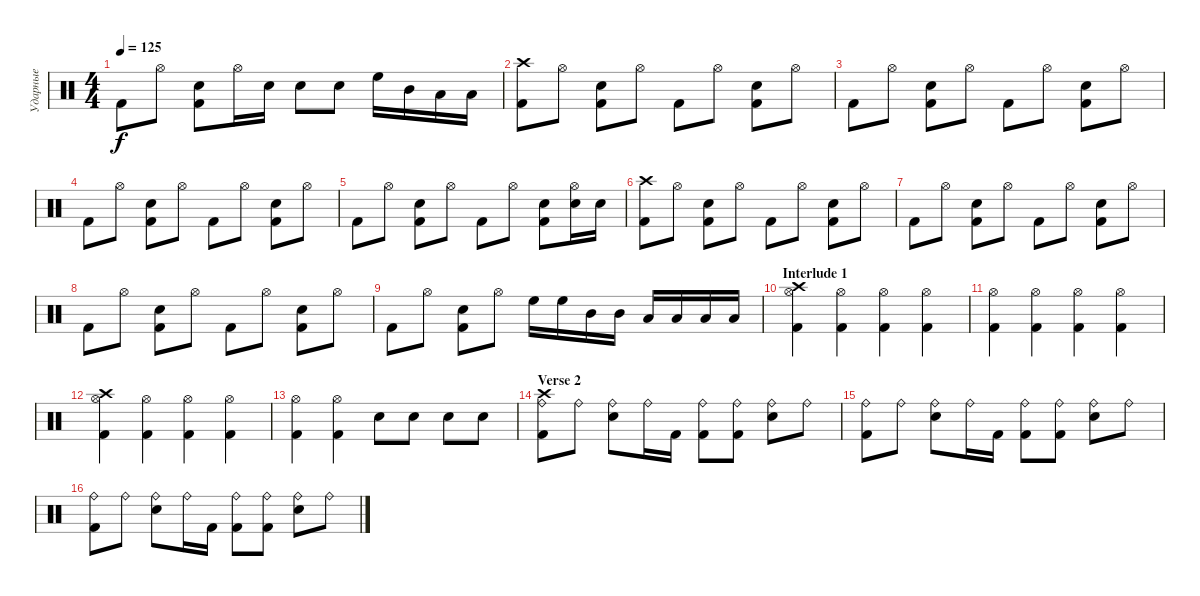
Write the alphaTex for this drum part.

\track ("Ударные" "Ударные") {instrument percussion}
\staff {score}
\articulation defaults
\ts (4 4)
\tempo 125
\clef neutral
\ks c "Kick (hit) 2".8{dy f} "Hi-Hat (open)".8
("Snare (hit) 2" "Kick (hit) 2").8 "Hi-Hat (open)".16 "Snare (hit) 2".16 "Snare (hit) 2".8 "Snare (hit) 2".8 "High Floor Tom (hit)".16 "Mid Tom (hit)".16 "Low Tom (hit)".16 "Low Floor Tom (hit)".16 |
("Crash high (hit)" "Kick (hit) 2").8 "Hi-Hat (open)".8 ("Snare (hit) 2" "Kick (hit) 2").8 "Hi-Hat (open)".8 "Kick (hit) 2".8 "Hi-Hat (open)".8 ("Snare (hit) 2" "Kick (hit) 2").8 "Hi-Hat (open)".8 |
"Kick (hit) 2".8 "Hi-Hat (open)".8 ("Snare (hit) 2" "Kick (hit) 2").8 "Hi-Hat (open)".8 "Kick (hit) 2".8 "Hi-Hat (open)".8 ("Snare (hit) 2" "Kick (hit) 2").8 "Hi-Hat (open)".8 |
"Kick (hit) 2".8 "Hi-Hat (open)".8 ("Snare (hit) 2" "Kick (hit) 2").8 "Hi-Hat (open)".8 "Kick (hit) 2".8 "Hi-Hat (open)".8 ("Snare (hit) 2" "Kick (hit) 2").8 "Hi-Hat (open)".8 |
"Kick (hit) 2".8 "Hi-Hat (open)".8 ("Snare (hit) 2" "Kick (hit) 2").8 "Hi-Hat (open)".8 "Kick (hit) 2".8 "Hi-Hat (open)".8 ("Snare (hit) 2" "Kick (hit) 2").8 ("Hi-Hat (open)" "Snare (hit) 2").16 "Snare (hit) 2".16 |
("Crash high (hit)" "Kick (hit) 2").8 "Hi-Hat (open)".8 ("Snare (hit) 2" "Kick (hit) 2").8 "Hi-Hat (open)".8 "Kick (hit) 2".8 "Hi-Hat (open)".8 ("Snare (hit) 2" "Kick (hit) 2").8 "Hi-Hat (open)".8 |
"Kick (hit) 2".8 "Hi-Hat (open)".8 ("Snare (hit) 2" "Kick (hit) 2").8 "Hi-Hat (open)".8 "Kick (hit) 2".8 "Hi-Hat (open)".8 ("Snare (hit) 2" "Kick (hit) 2").8 "Hi-Hat (open)".8 |
"Kick (hit) 2".8 "Hi-Hat (open)".8 ("Snare (hit) 2" "Kick (hit) 2").8 "Hi-Hat (open)".8 "Kick (hit) 2".8 "Hi-Hat (open)".8 ("Snare (hit) 2" "Kick (hit) 2").8 "Hi-Hat (open)".8 |
"Kick (hit) 2".8 "Hi-Hat (open)".8 ("Snare (hit) 2" "Kick (hit) 2").8 "Hi-Hat (open)".8 "High Floor Tom (hit)".16 "High Floor Tom (hit)".16 "Mid Tom (hit)".16 "Mid Tom (hit)".16 "Low Tom (hit)".16 "Low Tom (hit)".16 "Low Floor Tom (hit)".16 "Low Floor Tom (hit)".16 |
\section ("" "Interlude 1")
("Hi-Hat (open)" "Crash high (hit)" "Kick (hit) 2").4 ("Hi-Hat (open)" "Kick (hit) 2").4 ("Hi-Hat (open)" "Kick (hit) 2").4 ("Hi-Hat (open)" "Kick (hit) 2").4 |
("Hi-Hat (open)" "Kick (hit) 2").4 ("Hi-Hat (open)" "Kick (hit) 2").4 ("Hi-Hat (open)" "Kick (hit) 2").4 ("Hi-Hat (open)" "Kick (hit) 2").4 |
("Hi-Hat (open)" "Crash high (hit)" "Kick (hit) 2").4 ("Hi-Hat (open)" "Kick (hit) 2").4 ("Hi-Hat (open)" "Kick (hit) 2").4 ("Hi-Hat (open)" "Kick (hit) 2").4 |
("Hi-Hat (open)" "Kick (hit) 2").4 ("Hi-Hat (open)" "Kick (hit) 2").4 "Snare (hit) 2".8 "Snare (hit) 2".8 "Snare (hit) 2".8 "Snare (hit) 2".8 |
\section ("" "Verse 2")
("Ride (bell)" "Crash high (hit)" "Kick (hit) 2").8 "Ride (bell)".8 ("Ride (bell)" "Snare (hit) 2").8 "Ride (bell)".16 "Kick (hit) 2".16 ("Ride (bell)" "Kick (hit) 2").8 ("Ride (bell)" "Kick (hit) 2").8 ("Ride (bell)" "Snare (hit) 2").8 "Ride (bell)".8 |
("Ride (bell)" "Kick (hit) 2").8 "Ride (bell)".8 ("Ride (bell)" "Snare (hit) 2").8 "Ride (bell)".16 "Kick (hit) 2".16 ("Ride (bell)" "Kick (hit) 2").8 ("Ride (bell)" "Kick (hit) 2").8 ("Ride (bell)" "Snare (hit) 2").8 "Ride (bell)".8 |
("Ride (bell)" "Kick (hit) 2").8 "Ride (bell)".8 ("Ride (bell)" "Snare (hit) 2").8 "Ride (bell)".16 "Kick (hit) 2".16 ("Ride (bell)" "Kick (hit) 2").8 ("Ride (bell)" "Kick (hit) 2").8 ("Ride (bell)" "Snare (hit) 2").8 "Ride (bell)".8
